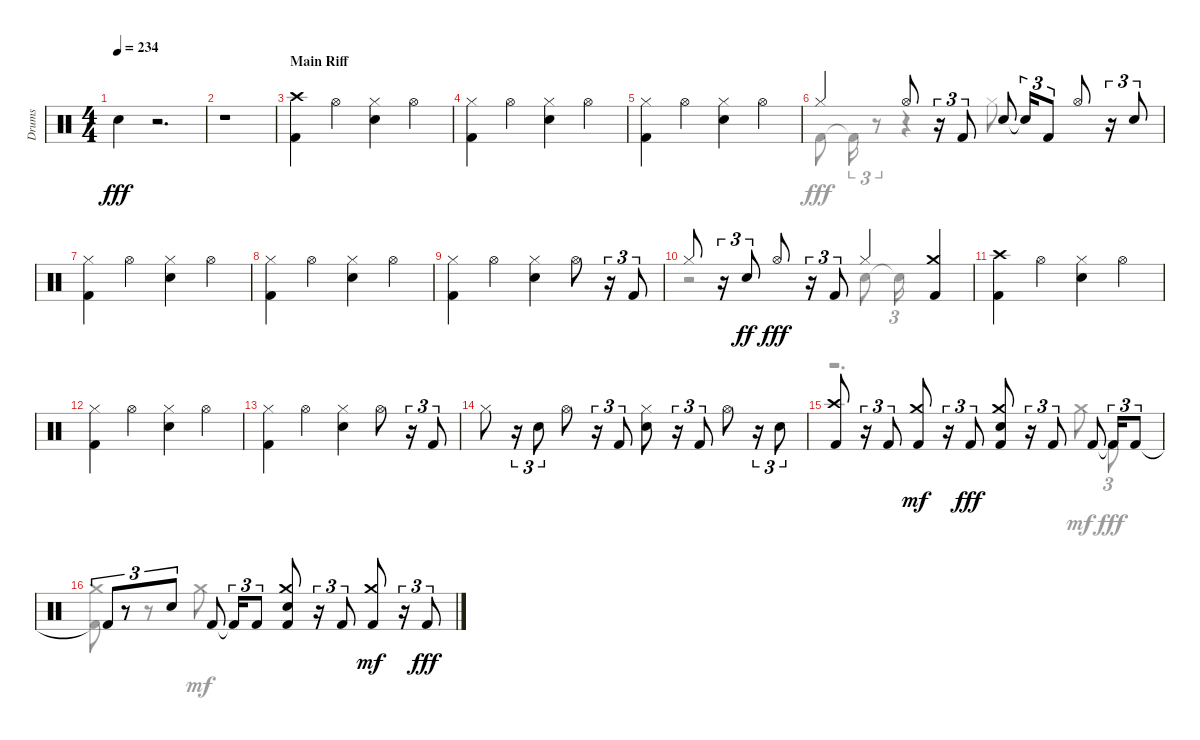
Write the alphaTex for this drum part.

\track ("Drums" "Drums") {instrument percussion}
\staff {score}
\articulation defaults
\voice
\ts (4 4)
\tempo 234
\clef neutral
\ks aminor "Snare (hit) 2".4{dy fff}
r.2{d} |
r.1 |
\section ("" "Main Riff")
("Kick (hit) 2" "Crash high (hit)").4 "Hi-Hat (open)".4 ("Snare (hit) 2" "Hi-Hat (closed)").4 "Hi-Hat (open)".4 |
("Hi-Hat (closed)" "Kick (hit) 2").4 "Hi-Hat (open)".4 ("Snare (hit) 2" "Hi-Hat (closed)").4 "Hi-Hat (open)".4 |
("Hi-Hat (closed)" "Kick (hit) 2").4 "Hi-Hat (open)".4 ("Snare (hit) 2" "Hi-Hat (closed)").4 "Hi-Hat (open)".4 |
"Hi-Hat (closed)".4 "Hi-Hat (open)".8 r.16{tu (3 2)} "Kick (hit) 2".8{tu (3 2)} "Snare (hit) 2".8 "Snare (hit) 2"{t}.16{tu (3 2)} "Kick (hit) 2".8{tu (3 2)} "Hi-Hat (open)".8 r.16{tu (3 2)} "Snare (hit) 2".8{tu (3 2)} |
("Hi-Hat (closed)" "Kick (hit) 2").4 "Hi-Hat (open)".4 ("Snare (hit) 2" "Hi-Hat (closed)").4 "Hi-Hat (open)".4 |
("Hi-Hat (closed)" "Kick (hit) 2").4 "Hi-Hat (open)".4 ("Snare (hit) 2" "Hi-Hat (closed)").4 "Hi-Hat (open)".4 |
("Kick (hit) 2" "Hi-Hat (closed)").4 "Hi-Hat (open)".4 ("Hi-Hat (closed)" "Snare (hit) 2").4 "Hi-Hat (open)".8 r.16{tu (3 2)} "Kick (hit) 2".8{tu (3 2)} |
"Hi-Hat (closed)".8 r.16{tu (3 2)} "Snare (hit) 2".8{tu (3 2) dy ff} "Hi-Hat (open)".8{dy fff} r.16{tu (3 2)} "Kick (hit) 2".8{tu (3 2)} "Hi-Hat (closed)".4 ("Kick (hit) 2" "Crash medium (hit)").4 |
("Crash high (hit)" "Kick (hit) 2").4 "Hi-Hat (open)".4 ("Snare (hit) 2" "Hi-Hat (closed)").4 "Hi-Hat (open)".4 |
("Hi-Hat (closed)" "Kick (hit) 2").4 "Hi-Hat (open)".4 ("Hi-Hat (closed)" "Snare (hit) 2").4 "Hi-Hat (open)".4 |
("Kick (hit) 2" "Hi-Hat (closed)").4 "Hi-Hat (open)".4 ("Hi-Hat (closed)" "Snare (hit) 2").4 "Hi-Hat (open)".8 r.16{tu (3 2)} "Kick (hit) 2".8{tu (3 2)} |
"Hi-Hat (closed)".8 r.16{tu (3 2)} "Snare (hit) 2".8{tu (3 2)} "Hi-Hat (open)".8 r.16{tu (3 2)} "Kick (hit) 2".8{tu (3 2)} ("Snare (hit) 2" "Hi-Hat (closed)").8 r.16{tu (3 2)} "Kick (hit) 2".8{tu (3 2)} "Hi-Hat (open)".8 r.16{tu (3 2)} "Snare (hit) 2".8{tu (3 2)} |
("Crash high (hit)" "Kick (hit) 2").8 r.16{tu (3 2)} "Kick (hit) 2".8{tu (3 2)} ("Crash medium (hit)" "Kick (hit) 2").8{dy mf} r.16{tu (3 2)} "Kick (hit) 2".8{tu (3 2) dy fff} ("Kick (hit) 2" "Snare (hit) 2" "Crash medium (hit)").8 r.16{tu (3 2)} "Kick (hit) 2".8{tu (3 2)} "Kick (hit) 2".8 "Kick (hit) 2"{t}.16{tu (3 2)} "Kick (hit) 2".8{tu (3 2)} |
"Kick (hit) 2"{t}.8{tu (3 2)} r.8{tu (3 2)} "Snare (hit) 2".8{tu (3 2)} "Kick (hit) 2".8 "Kick (hit) 2"{t}.16{tu (3 2)} "Kick (hit) 2".8{tu (3 2)} ("Snare (hit) 2" "Crash medium (hit)" "Kick (hit) 2").8 r.16{tu (3 2)} "Kick (hit) 2".8{tu (3 2)} ("Crash medium (hit)" "Kick (hit) 2").8{dy mf} r.16{tu (3 2)} "Kick (hit) 2".8{tu (3 2) dy fff}
\voice
\clef neutral
\ottava regular
\simile none
\ks aminor
|
|
|
|
|
"Kick (hit) 2".8 "Kick (hit) 2"{t}.16{tu (3 2)} r.8{tu (3 2)} r.4 "Hi-Hat (closed)".8 |
|
|
|
r.2 "Snare (hit) 2".8 "Snare (hit) 2"{t}.16{tu (3 2)} |
|
|
|
|
r.2{d} "Crash medium (hit)".8{dy mf} "Kick (hit) 2".8{tu (3 2) dy fff} |
("Crash medium (hit)" "Kick (hit) 2").8 r.8 "Crash medium (hit)".8{dy mf}
